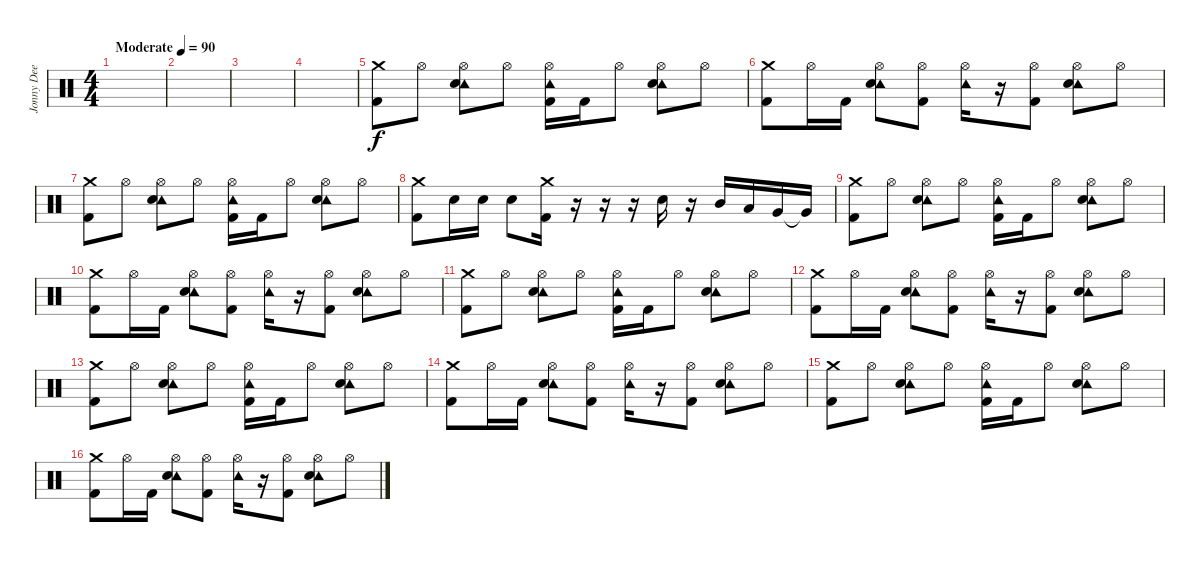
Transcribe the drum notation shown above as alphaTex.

\track ("Jonny Dee" "Jonny Dee") {instrument percussion}
\staff {score}
\articulation defaults
\ts (4 4)
\tempo (90 "Moderate")
\clef neutral
\ks c
|
|
|
|
("Crash medium (hit)" "Kick (hit) 2").8 "Hi-Hat (open)".8 ("Tambourine (hit)" "Hi-Hat (open)" "Snare (hit) 2").8 "Hi-Hat (open)".8 ("Tambourine (hit)" "Hi-Hat (open)" "Kick (hit) 2").16 "Kick (hit) 2".16 "Hi-Hat (open)".8 ("Tambourine (hit)" "Hi-Hat (open)" "Snare (hit) 2").8 "Hi-Hat (open)".8 |
("Crash medium (hit)" "Kick (hit) 2").8 "Hi-Hat (open)".16 "Kick (hit) 2".16 ("Tambourine (hit)" "Hi-Hat (open)" "Snare (hit) 2").8 ("Hi-Hat (open)" "Kick (hit) 2").8 ("Tambourine (hit)" "Hi-Hat (open)").16 r.16 ("Hi-Hat (open)" "Kick (hit) 2").8 ("Tambourine (hit)" "Hi-Hat (open)" "Snare (hit) 2").8 "Hi-Hat (open)".8 |
("Crash medium (hit)" "Kick (hit) 2").8 "Hi-Hat (open)".8 ("Tambourine (hit)" "Hi-Hat (open)" "Snare (hit) 2").8 "Hi-Hat (open)".8 ("Tambourine (hit)" "Hi-Hat (open)" "Kick (hit) 2").16 "Kick (hit) 2".16 "Hi-Hat (open)".8 ("Tambourine (hit)" "Hi-Hat (open)" "Snare (hit) 2").8 "Hi-Hat (open)".8 |
("Crash medium (hit)" "Kick (hit) 2").8 "Snare (hit) 2".16 "Snare (hit) 2".16 "Snare (hit) 2".8 ("Crash medium (hit)" "Kick (hit) 2").16 r.16 r.16 r.16 "Snare (hit) 2".16 r.16 "Mid Tom (hit)".16 "Low Tom (hit)".16 "Very Low Tom (hit)".16 "Very Low Tom (hit)"{t}.16 |
("Crash medium (hit)" "Kick (hit) 2").8 "Hi-Hat (open)".8 ("Tambourine (hit)" "Hi-Hat (open)" "Snare (hit) 2").8 "Hi-Hat (open)".8 ("Tambourine (hit)" "Hi-Hat (open)" "Kick (hit) 2").16 "Kick (hit) 2".16 "Hi-Hat (open)".8 ("Tambourine (hit)" "Hi-Hat (open)" "Snare (hit) 2").8 "Hi-Hat (open)".8 |
("Crash medium (hit)" "Kick (hit) 2").8 "Hi-Hat (open)".16 "Kick (hit) 2".16 ("Tambourine (hit)" "Hi-Hat (open)" "Snare (hit) 2").8 ("Hi-Hat (open)" "Kick (hit) 2").8 ("Tambourine (hit)" "Hi-Hat (open)").16 r.16 ("Hi-Hat (open)" "Kick (hit) 2").8 ("Tambourine (hit)" "Hi-Hat (open)" "Snare (hit) 2").8 "Hi-Hat (open)".8 |
("Crash medium (hit)" "Kick (hit) 2").8 "Hi-Hat (open)".8 ("Tambourine (hit)" "Hi-Hat (open)" "Snare (hit) 2").8 "Hi-Hat (open)".8 ("Tambourine (hit)" "Hi-Hat (open)" "Kick (hit) 2").16 "Kick (hit) 2".16 "Hi-Hat (open)".8 ("Tambourine (hit)" "Hi-Hat (open)" "Snare (hit) 2").8 "Hi-Hat (open)".8 |
("Crash medium (hit)" "Kick (hit) 2").8 "Hi-Hat (open)".16 "Kick (hit) 2".16 ("Tambourine (hit)" "Hi-Hat (open)" "Snare (hit) 2").8 ("Hi-Hat (open)" "Kick (hit) 2").8 ("Tambourine (hit)" "Hi-Hat (open)").16 r.16 ("Hi-Hat (open)" "Kick (hit) 2").8 ("Tambourine (hit)" "Hi-Hat (open)" "Snare (hit) 2").8 "Hi-Hat (open)".8 |
("Crash medium (hit)" "Kick (hit) 2").8 "Hi-Hat (open)".8 ("Tambourine (hit)" "Hi-Hat (open)" "Snare (hit) 2").8 "Hi-Hat (open)".8 ("Tambourine (hit)" "Hi-Hat (open)" "Kick (hit) 2").16 "Kick (hit) 2".16 "Hi-Hat (open)".8 ("Tambourine (hit)" "Hi-Hat (open)" "Snare (hit) 2").8 "Hi-Hat (open)".8 |
("Crash medium (hit)" "Kick (hit) 2").8 "Hi-Hat (open)".16 "Kick (hit) 2".16 ("Tambourine (hit)" "Hi-Hat (open)" "Snare (hit) 2").8 ("Hi-Hat (open)" "Kick (hit) 2").8 ("Tambourine (hit)" "Hi-Hat (open)").16 r.16 ("Hi-Hat (open)" "Kick (hit) 2").8 ("Tambourine (hit)" "Hi-Hat (open)" "Snare (hit) 2").8 "Hi-Hat (open)".8 |
("Crash medium (hit)" "Kick (hit) 2").8 "Hi-Hat (open)".8 ("Tambourine (hit)" "Hi-Hat (open)" "Snare (hit) 2").8 "Hi-Hat (open)".8 ("Tambourine (hit)" "Hi-Hat (open)" "Kick (hit) 2").16 "Kick (hit) 2".16 "Hi-Hat (open)".8 ("Tambourine (hit)" "Hi-Hat (open)" "Snare (hit) 2").8 "Hi-Hat (open)".8 |
("Crash medium (hit)" "Kick (hit) 2").8 "Hi-Hat (open)".16 "Kick (hit) 2".16 ("Tambourine (hit)" "Hi-Hat (open)" "Snare (hit) 2").8 ("Hi-Hat (open)" "Kick (hit) 2").8 ("Tambourine (hit)" "Hi-Hat (open)").16 r.16 ("Hi-Hat (open)" "Kick (hit) 2").8 ("Tambourine (hit)" "Hi-Hat (open)" "Snare (hit) 2").8 "Hi-Hat (open)".8
